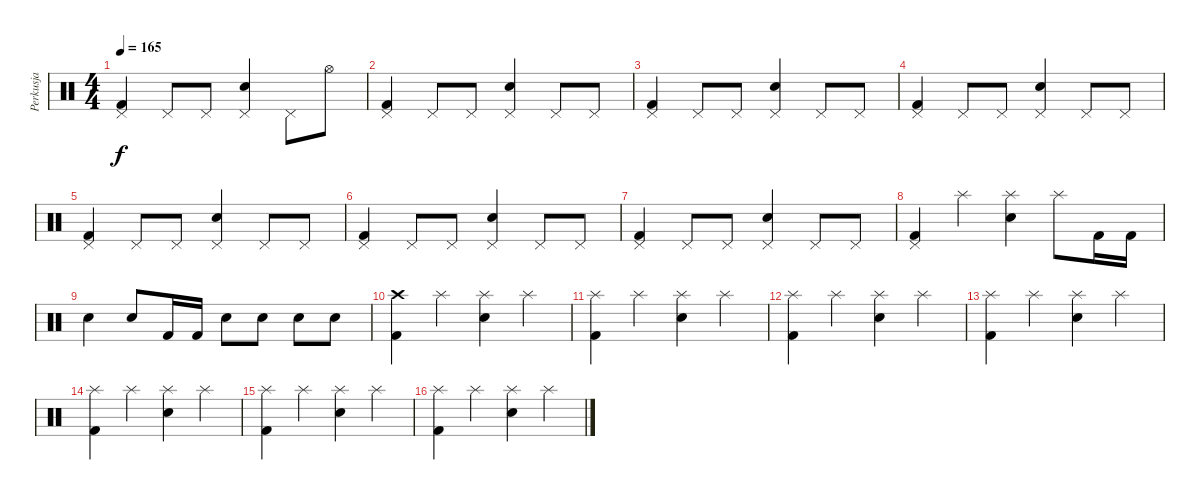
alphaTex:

\track ("Perkusja" "Perkusja") {instrument percussion}
\staff {score}
\articulation defaults
\ts (4 4)
\tempo 165
\clef neutral
\ks c
("Pedal Hi-Hat (hit)" "Kick (hit) 2").4{dy f} "Pedal Hi-Hat (hit)".8 "Pedal Hi-Hat (hit)".8 ("Pedal Hi-Hat (hit)" "Snare (hit) 2").4 "Pedal Hi-Hat (hit)".8 "Hi-Hat (open)".8 |
("Pedal Hi-Hat (hit)" "Kick (hit) 2").4 "Pedal Hi-Hat (hit)".8 "Pedal Hi-Hat (hit)".8 ("Pedal Hi-Hat (hit)" "Snare (hit) 2").4 "Pedal Hi-Hat (hit)".8 "Pedal Hi-Hat (hit)".8 |
("Pedal Hi-Hat (hit)" "Kick (hit) 2").4 "Pedal Hi-Hat (hit)".8 "Pedal Hi-Hat (hit)".8 ("Pedal Hi-Hat (hit)" "Snare (hit) 2").4 "Pedal Hi-Hat (hit)".8 "Pedal Hi-Hat (hit)".8 |
("Pedal Hi-Hat (hit)" "Kick (hit) 2").4 "Pedal Hi-Hat (hit)".8 "Pedal Hi-Hat (hit)".8 ("Pedal Hi-Hat (hit)" "Snare (hit) 2").4 "Pedal Hi-Hat (hit)".8 "Pedal Hi-Hat (hit)".8 |
("Pedal Hi-Hat (hit)" "Kick (hit) 2").4 "Pedal Hi-Hat (hit)".8 "Pedal Hi-Hat (hit)".8 ("Pedal Hi-Hat (hit)" "Snare (hit) 2").4 "Pedal Hi-Hat (hit)".8 "Pedal Hi-Hat (hit)".8 |
("Pedal Hi-Hat (hit)" "Kick (hit) 2").4 "Pedal Hi-Hat (hit)".8 "Pedal Hi-Hat (hit)".8 ("Pedal Hi-Hat (hit)" "Snare (hit) 2").4 "Pedal Hi-Hat (hit)".8 "Pedal Hi-Hat (hit)".8 |
("Pedal Hi-Hat (hit)" "Kick (hit) 2").4 "Pedal Hi-Hat (hit)".8 "Pedal Hi-Hat (hit)".8 ("Pedal Hi-Hat (hit)" "Snare (hit) 2").4 "Pedal Hi-Hat (hit)".8 "Pedal Hi-Hat (hit)".8 |
("Pedal Hi-Hat (hit)" "Kick (hit) 2").4 "Splash (hit)".4 ("Splash (hit)" "Snare (hit) 2").4 "Splash (hit)".8 "Kick (hit) 2".16 "Kick (hit) 2".16 |
"Snare (hit) 2".4 "Snare (hit) 2".8 "Kick (hit) 2".16 "Kick (hit) 2".16 "Snare (hit) 2".8 "Snare (hit) 2".8 "Snare (hit) 2".8 "Snare (hit) 2".8 |
("Crash high (hit)" "Kick (hit) 2").4 "Splash (hit)".4 ("Splash (hit)" "Snare (hit) 2").4 "Splash (hit)".4 |
("Splash (hit)" "Kick (hit) 2").4 "Splash (hit)".4 ("Splash (hit)" "Snare (hit) 2").4 "Splash (hit)".4 |
("Splash (hit)" "Kick (hit) 2").4 "Splash (hit)".4 ("Splash (hit)" "Snare (hit) 2").4 "Splash (hit)".4 |
("Splash (hit)" "Kick (hit) 2").4 "Splash (hit)".4 ("Splash (hit)" "Snare (hit) 2").4 "Splash (hit)".4 |
("Splash (hit)" "Kick (hit) 2").4 "Splash (hit)".4 ("Splash (hit)" "Snare (hit) 2").4 "Splash (hit)".4 |
("Splash (hit)" "Kick (hit) 2").4 "Splash (hit)".4 ("Splash (hit)" "Snare (hit) 2").4 "Splash (hit)".4 |
("Splash (hit)" "Kick (hit) 2").4 "Splash (hit)".4 ("Splash (hit)" "Snare (hit) 2").4 "Splash (hit)".4
